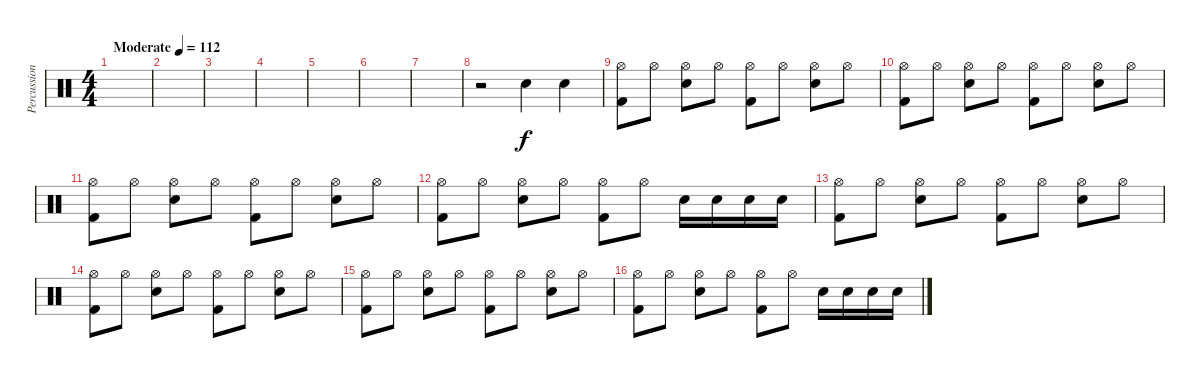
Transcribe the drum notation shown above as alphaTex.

\track ("Percussion" "Percussion") {instrument percussion}
\staff {score}
\articulation defaults
\ts (4 4)
\tempo (112 "Moderate")
\clef neutral
\ks c
|
|
|
|
|
|
|
r.2 "Snare (hit) 2".4 "Snare (hit) 2".4 |
("Hi-Hat (open)" "Kick (hit) 2").8 "Hi-Hat (open)".8 ("Hi-Hat (open)" "Snare (hit) 2").8 "Hi-Hat (open)".8 ("Hi-Hat (open)" "Kick (hit) 2").8 "Hi-Hat (open)".8 ("Hi-Hat (open)" "Snare (hit) 2").8 "Hi-Hat (open)".8 |
("Hi-Hat (open)" "Kick (hit) 2").8 "Hi-Hat (open)".8 ("Hi-Hat (open)" "Snare (hit) 2").8 "Hi-Hat (open)".8 ("Hi-Hat (open)" "Kick (hit) 2").8 "Hi-Hat (open)".8 ("Hi-Hat (open)" "Snare (hit) 2").8 "Hi-Hat (open)".8 |
("Hi-Hat (open)" "Kick (hit) 2").8 "Hi-Hat (open)".8 ("Hi-Hat (open)" "Snare (hit) 2").8 "Hi-Hat (open)".8 ("Hi-Hat (open)" "Kick (hit) 2").8 "Hi-Hat (open)".8 ("Hi-Hat (open)" "Snare (hit) 2").8 "Hi-Hat (open)".8 |
("Hi-Hat (open)" "Kick (hit) 2").8 "Hi-Hat (open)".8 ("Hi-Hat (open)" "Snare (hit) 2").8 "Hi-Hat (open)".8 ("Hi-Hat (open)" "Kick (hit) 2").8 "Hi-Hat (open)".8 "Snare (hit) 2".16 "Snare (hit) 2".16 "Snare (hit) 2".16 "Snare (hit) 2".16 |
("Hi-Hat (open)" "Kick (hit) 2").8 "Hi-Hat (open)".8 ("Hi-Hat (open)" "Snare (hit) 2").8 "Hi-Hat (open)".8 ("Hi-Hat (open)" "Kick (hit) 2").8 "Hi-Hat (open)".8 ("Hi-Hat (open)" "Snare (hit) 2").8 "Hi-Hat (open)".8 |
("Hi-Hat (open)" "Kick (hit) 2").8 "Hi-Hat (open)".8 ("Hi-Hat (open)" "Snare (hit) 2").8 "Hi-Hat (open)".8 ("Hi-Hat (open)" "Kick (hit) 2").8 "Hi-Hat (open)".8 ("Hi-Hat (open)" "Snare (hit) 2").8 "Hi-Hat (open)".8 |
("Hi-Hat (open)" "Kick (hit) 2").8 "Hi-Hat (open)".8 ("Hi-Hat (open)" "Snare (hit) 2").8 "Hi-Hat (open)".8 ("Hi-Hat (open)" "Kick (hit) 2").8 "Hi-Hat (open)".8 ("Hi-Hat (open)" "Snare (hit) 2").8 "Hi-Hat (open)".8 |
("Hi-Hat (open)" "Kick (hit) 2").8 "Hi-Hat (open)".8 ("Hi-Hat (open)" "Snare (hit) 2").8 "Hi-Hat (open)".8 ("Hi-Hat (open)" "Kick (hit) 2").8 "Hi-Hat (open)".8 "Snare (hit) 2".16 "Snare (hit) 2".16 "Snare (hit) 2".16 "Snare (hit) 2".16
